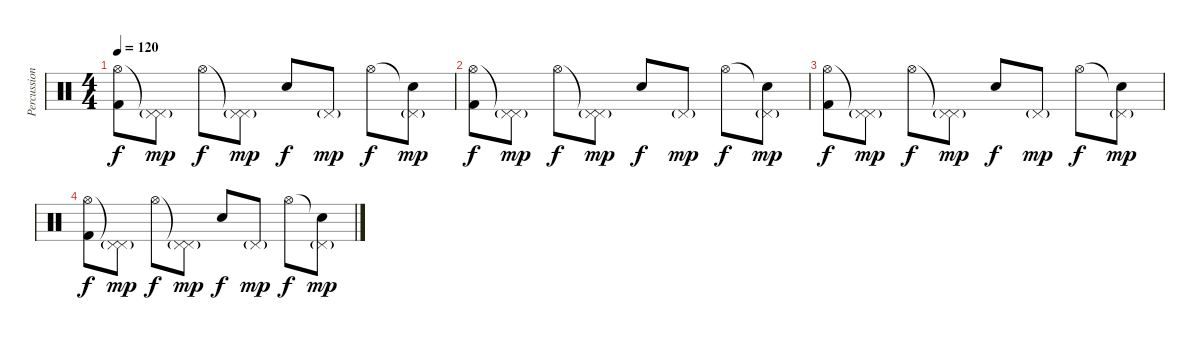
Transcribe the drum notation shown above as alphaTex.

\track ("Percussion" "Percussion") {instrument percussion}
\staff {score}
\articulation defaults
\ts (4 4)
\tempo 120
\clef neutral
\ks c
("Hi-Hat (open)" "Kick (hit) 2").8{dy f} ("Pedal Hi-Hat (hit)"{t} "Pedal Hi-Hat (hit)"{g}).8{dy mp} "Hi-Hat (open)".8{dy f} ("Pedal Hi-Hat (hit)"{t} "Pedal Hi-Hat (hit)"{g}).8{dy mp} "Snare (hit) 2".8{dy f} "Pedal Hi-Hat (hit)"{g}.8{dy mp} "Hi-Hat (open)".8{dy f} ("Snare (hit)"{t} "Pedal Hi-Hat (hit)"{g}).8{dy mp} |
("Hi-Hat (open)" "Kick (hit) 2").8{dy f} ("Pedal Hi-Hat (hit)"{t} "Pedal Hi-Hat (hit)"{g}).8{dy mp} "Hi-Hat (open)".8{dy f} ("Pedal Hi-Hat (hit)"{t} "Pedal Hi-Hat (hit)"{g}).8{dy mp} "Snare (hit) 2".8{dy f} "Pedal Hi-Hat (hit)"{g}.8{dy mp} "Hi-Hat (open)".8{dy f} ("Snare (hit)"{t} "Pedal Hi-Hat (hit)"{g}).8{dy mp} |
("Hi-Hat (open)" "Kick (hit) 2").8{dy f} ("Pedal Hi-Hat (hit)"{t} "Pedal Hi-Hat (hit)"{g}).8{dy mp} "Hi-Hat (open)".8{dy f} ("Pedal Hi-Hat (hit)"{t} "Pedal Hi-Hat (hit)"{g}).8{dy mp} "Snare (hit) 2".8{dy f} "Pedal Hi-Hat (hit)"{g}.8{dy mp} "Hi-Hat (open)".8{dy f} ("Snare (hit)"{t} "Pedal Hi-Hat (hit)"{g}).8{dy mp} |
("Hi-Hat (open)" "Kick (hit) 2").8{dy f volume 0} ("Pedal Hi-Hat (hit)"{t} "Pedal Hi-Hat (hit)"{g}).8{dy mp} "Hi-Hat (open)".8{dy f} ("Pedal Hi-Hat (hit)"{t} "Pedal Hi-Hat (hit)"{g}).8{dy mp} "Snare (hit) 2".8{dy f} "Pedal Hi-Hat (hit)"{g}.8{dy mp} "Hi-Hat (open)".8{dy f} ("Snare (hit)"{t} "Pedal Hi-Hat (hit)"{g}).8{dy mp}
